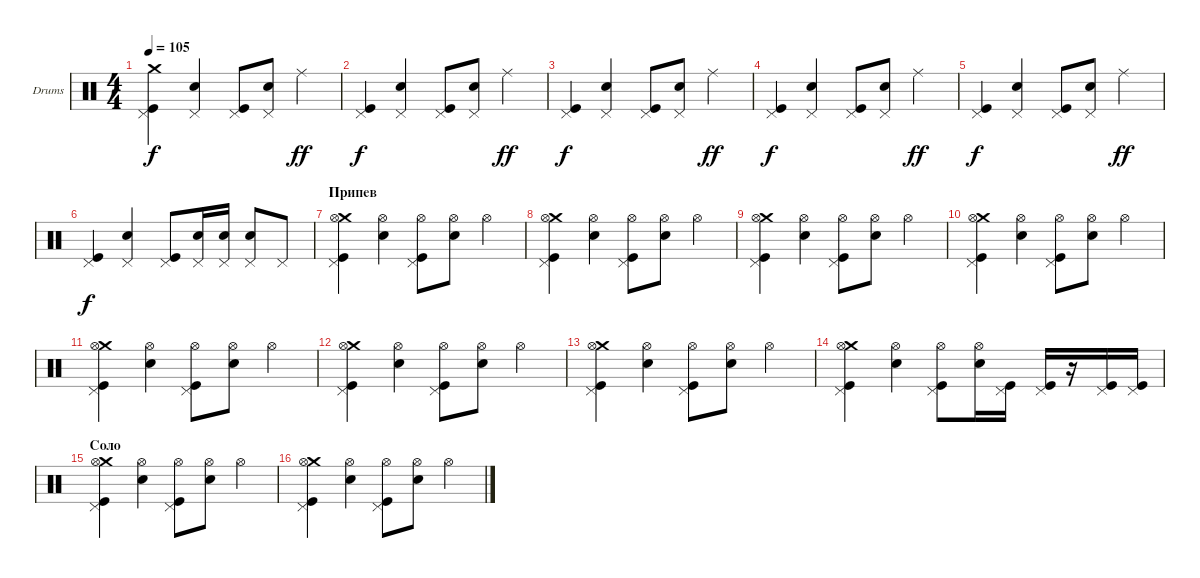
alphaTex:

\defaultSystemsLayout 4
\bracketExtendMode groupsimilarinstruments
\firstSystemTrackNameOrientation horizontal
\otherSystemsTrackNameOrientation horizontal
\track ("Е. Кулаков" "Drums") {instrument percussion}
\staff {score}
\articulation defaults
\ts (4 4)
\tempo 105
\clef neutral
\ks c
("Crash medium (hit)" "Pedal Hi-Hat (hit)" "Kick (hit)").4{dy f} ("Snare (hit) 2" "Pedal Hi-Hat (hit)").4 ("Pedal Hi-Hat (hit)" "Kick (hit)").8 ("Snare (hit) 2" "Pedal Hi-Hat (hit)").8 "Ride (middle)".4{dy ff} |
("Pedal Hi-Hat (hit)" "Kick (hit)").4{dy f} ("Snare (hit) 2" "Pedal Hi-Hat (hit)").4 ("Pedal Hi-Hat (hit)" "Kick (hit)").8 ("Snare (hit) 2" "Pedal Hi-Hat (hit)").8 "Ride (middle)".4{dy ff} |
("Pedal Hi-Hat (hit)" "Kick (hit)").4{dy f} ("Snare (hit) 2" "Pedal Hi-Hat (hit)").4 ("Pedal Hi-Hat (hit)" "Kick (hit)").8 ("Snare (hit) 2" "Pedal Hi-Hat (hit)").8 "Ride (middle)".4{dy ff} |
("Pedal Hi-Hat (hit)" "Kick (hit)").4{dy f} ("Snare (hit) 2" "Pedal Hi-Hat (hit)").4 ("Pedal Hi-Hat (hit)" "Kick (hit)").8 ("Snare (hit) 2" "Pedal Hi-Hat (hit)").8 "Ride (middle)".4{dy ff} |
("Pedal Hi-Hat (hit)" "Kick (hit)").4{dy f} ("Snare (hit) 2" "Pedal Hi-Hat (hit)").4 ("Pedal Hi-Hat (hit)" "Kick (hit)").8 ("Snare (hit) 2" "Pedal Hi-Hat (hit)").8 "Ride (middle)".4{dy ff} |
("Pedal Hi-Hat (hit)" "Kick (hit)").4{dy f} ("Snare (hit) 2" "Pedal Hi-Hat (hit)").4 ("Pedal Hi-Hat (hit)" "Kick (hit)").8 ("Snare (hit) 2" "Pedal Hi-Hat (hit)").16 ("Snare (hit) 2" "Pedal Hi-Hat (hit)").16 ("Snare (hit) 2" "Pedal Hi-Hat (hit)").8 "Pedal Hi-Hat (hit)".8 |
\section ("" "Припев")
("Crash medium (hit)" "Pedal Hi-Hat (hit)" "Kick (hit)" "Hi-Hat (open)").4 ("Snare (hit) 2" "Hi-Hat (open)").4 ("Pedal Hi-Hat (hit)" "Kick (hit)" "Hi-Hat (open)").8 ("Snare (hit) 2" "Hi-Hat (open)").8 "Hi-Hat (open)".4 |
("Crash medium (hit)" "Pedal Hi-Hat (hit)" "Kick (hit)" "Hi-Hat (open)").4 ("Snare (hit) 2" "Hi-Hat (open)").4 ("Pedal Hi-Hat (hit)" "Kick (hit)" "Hi-Hat (open)").8 ("Snare (hit) 2" "Hi-Hat (open)").8 "Hi-Hat (open)".4 |
("Crash medium (hit)" "Pedal Hi-Hat (hit)" "Kick (hit)" "Hi-Hat (open)").4 ("Snare (hit) 2" "Hi-Hat (open)").4 ("Pedal Hi-Hat (hit)" "Kick (hit)" "Hi-Hat (open)").8 ("Snare (hit) 2" "Hi-Hat (open)").8 "Hi-Hat (open)".4 |
("Crash medium (hit)" "Pedal Hi-Hat (hit)" "Kick (hit)" "Hi-Hat (open)").4 ("Snare (hit) 2" "Hi-Hat (open)").4 ("Pedal Hi-Hat (hit)" "Kick (hit)" "Hi-Hat (open)").8 ("Snare (hit) 2" "Hi-Hat (open)").8 "Hi-Hat (open)".4 |
("Crash medium (hit)" "Pedal Hi-Hat (hit)" "Kick (hit)" "Hi-Hat (open)").4 ("Snare (hit) 2" "Hi-Hat (open)").4 ("Pedal Hi-Hat (hit)" "Kick (hit)" "Hi-Hat (open)").8 ("Snare (hit) 2" "Hi-Hat (open)").8 "Hi-Hat (open)".4 |
("Crash medium (hit)" "Pedal Hi-Hat (hit)" "Kick (hit)" "Hi-Hat (open)").4 ("Snare (hit) 2" "Hi-Hat (open)").4 ("Pedal Hi-Hat (hit)" "Kick (hit)" "Hi-Hat (open)").8 ("Snare (hit) 2" "Hi-Hat (open)").8 "Hi-Hat (open)".4 |
("Crash medium (hit)" "Pedal Hi-Hat (hit)" "Kick (hit)" "Hi-Hat (open)").4 ("Snare (hit) 2" "Hi-Hat (open)").4 ("Pedal Hi-Hat (hit)" "Kick (hit)" "Hi-Hat (open)").8 ("Snare (hit) 2" "Hi-Hat (open)").8 "Hi-Hat (open)".4 |
("Crash medium (hit)" "Pedal Hi-Hat (hit)" "Kick (hit)" "Hi-Hat (open)").4 ("Snare (hit) 2" "Hi-Hat (open)").4 ("Pedal Hi-Hat (hit)" "Kick (hit)" "Hi-Hat (open)").8 ("Snare (hit) 2" "Hi-Hat (open)").16 ("Pedal Hi-Hat (hit)" "Kick (hit)").16 ("Pedal Hi-Hat (hit)" "Kick (hit)").16 r.16 ("Pedal Hi-Hat (hit)" "Kick (hit)").16 ("Pedal Hi-Hat (hit)" "Kick (hit)").16 |
\section ("" "Соло")
("Crash medium (hit)" "Pedal Hi-Hat (hit)" "Kick (hit)" "Hi-Hat (open)").4 ("Snare (hit) 2" "Hi-Hat (open)").4 ("Pedal Hi-Hat (hit)" "Kick (hit)" "Hi-Hat (open)").8 ("Snare (hit) 2" "Hi-Hat (open)").8 "Hi-Hat (open)".4 |
("Crash medium (hit)" "Pedal Hi-Hat (hit)" "Kick (hit)" "Hi-Hat (open)").4 ("Snare (hit) 2" "Hi-Hat (open)").4 ("Pedal Hi-Hat (hit)" "Kick (hit)" "Hi-Hat (open)").8 ("Snare (hit) 2" "Hi-Hat (open)").8 "Hi-Hat (open)".4
